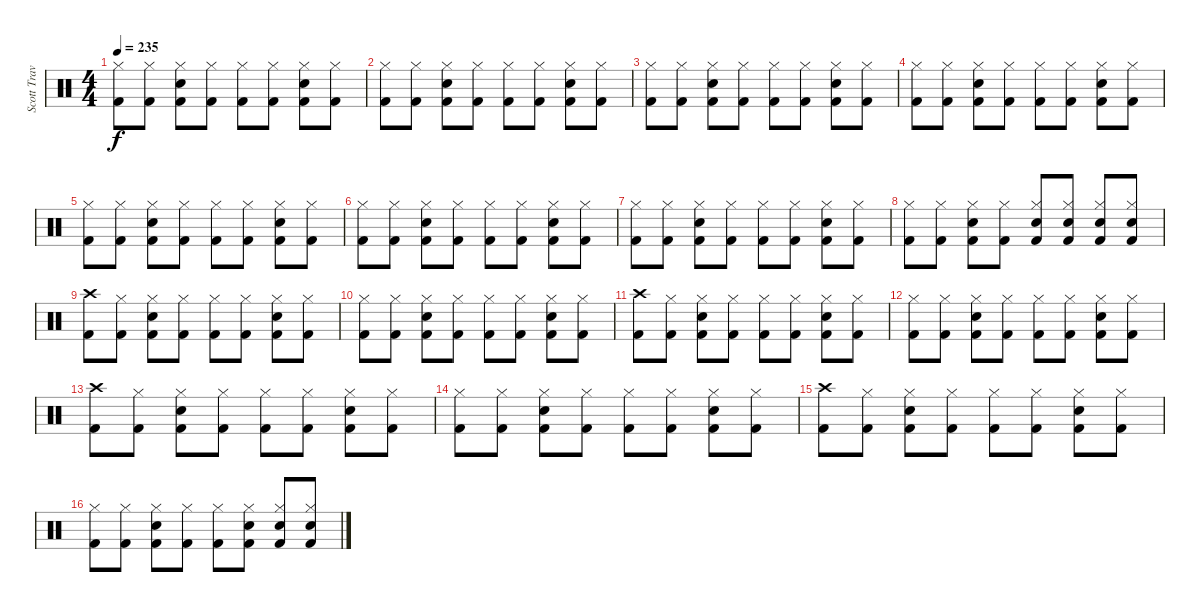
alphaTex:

\track ("Scott Travis" "Scott Trav") {instrument percussion}
\staff {score}
\articulation defaults
\ts (4 4)
\tempo 235
\clef neutral
\ks c
("Kick (hit) 2" "Hi-Hat (closed)").8{dy f} ("Kick (hit) 2" "Hi-Hat (closed)").8 ("Kick (hit) 2" "Snare (hit) 2" "Hi-Hat (closed)").8 ("Kick (hit) 2" "Hi-Hat (closed)").8 ("Kick (hit) 2" "Hi-Hat (closed)").8 ("Kick (hit) 2" "Hi-Hat (closed)").8 ("Kick (hit) 2" "Hi-Hat (closed)" "Snare (hit) 2").8 ("Kick (hit) 2" "Hi-Hat (closed)").8 |
("Kick (hit) 2" "Hi-Hat (closed)").8 ("Kick (hit) 2" "Hi-Hat (closed)").8 ("Kick (hit) 2" "Snare (hit) 2" "Hi-Hat (closed)").8 ("Kick (hit) 2" "Hi-Hat (closed)").8 ("Kick (hit) 2" "Hi-Hat (closed)").8 ("Kick (hit) 2" "Hi-Hat (closed)").8 ("Kick (hit) 2" "Hi-Hat (closed)" "Snare (hit) 2").8 ("Kick (hit) 2" "Hi-Hat (closed)").8 |
("Kick (hit) 2" "Hi-Hat (closed)").8 ("Kick (hit) 2" "Hi-Hat (closed)").8 ("Kick (hit) 2" "Snare (hit) 2" "Hi-Hat (closed)").8 ("Kick (hit) 2" "Hi-Hat (closed)").8 ("Kick (hit) 2" "Hi-Hat (closed)").8 ("Kick (hit) 2" "Hi-Hat (closed)").8 ("Kick (hit) 2" "Hi-Hat (closed)" "Snare (hit) 2").8 ("Kick (hit) 2" "Hi-Hat (closed)").8 |
("Kick (hit) 2" "Hi-Hat (closed)").8 ("Kick (hit) 2" "Hi-Hat (closed)").8 ("Kick (hit) 2" "Snare (hit) 2" "Hi-Hat (closed)").8 ("Kick (hit) 2" "Hi-Hat (closed)").8 ("Kick (hit) 2" "Hi-Hat (closed)").8 ("Kick (hit) 2" "Hi-Hat (closed)").8 ("Kick (hit) 2" "Hi-Hat (closed)" "Snare (hit) 2").8 ("Kick (hit) 2" "Hi-Hat (closed)").8 |
("Kick (hit) 2" "Hi-Hat (closed)").8 ("Kick (hit) 2" "Hi-Hat (closed)").8 ("Kick (hit) 2" "Snare (hit) 2" "Hi-Hat (closed)").8 ("Kick (hit) 2" "Hi-Hat (closed)").8 ("Kick (hit) 2" "Hi-Hat (closed)").8 ("Kick (hit) 2" "Hi-Hat (closed)").8 ("Kick (hit) 2" "Hi-Hat (closed)" "Snare (hit) 2").8 ("Kick (hit) 2" "Hi-Hat (closed)").8 |
("Kick (hit) 2" "Hi-Hat (closed)").8 ("Kick (hit) 2" "Hi-Hat (closed)").8 ("Kick (hit) 2" "Snare (hit) 2" "Hi-Hat (closed)").8 ("Kick (hit) 2" "Hi-Hat (closed)").8 ("Kick (hit) 2" "Hi-Hat (closed)").8 ("Kick (hit) 2" "Hi-Hat (closed)").8 ("Kick (hit) 2" "Hi-Hat (closed)" "Snare (hit) 2").8 ("Kick (hit) 2" "Hi-Hat (closed)").8 |
("Kick (hit) 2" "Hi-Hat (closed)").8 ("Kick (hit) 2" "Hi-Hat (closed)").8 ("Kick (hit) 2" "Snare (hit) 2" "Hi-Hat (closed)").8 ("Kick (hit) 2" "Hi-Hat (closed)").8 ("Kick (hit) 2" "Hi-Hat (closed)").8 ("Kick (hit) 2" "Hi-Hat (closed)").8 ("Kick (hit) 2" "Hi-Hat (closed)" "Snare (hit) 2").8 ("Kick (hit) 2" "Hi-Hat (closed)").8 |
("Kick (hit) 2" "Hi-Hat (closed)").8 ("Kick (hit) 2" "Hi-Hat (closed)").8 ("Kick (hit) 2" "Snare (hit) 2" "Hi-Hat (closed)").8 ("Kick (hit) 2" "Hi-Hat (closed)").8 ("Kick (hit) 2" "Hi-Hat (closed)" "Snare (hit) 2").8 ("Kick (hit) 2" "Hi-Hat (closed)" "Snare (hit) 2").8 ("Kick (hit) 2" "Hi-Hat (closed)" "Snare (hit) 2").8 ("Kick (hit) 2" "Hi-Hat (closed)" "Snare (hit) 2").8 |
("Kick (hit) 2" "Crash high (hit)").8 ("Kick (hit) 2" "Hi-Hat (closed)").8 ("Kick (hit) 2" "Snare (hit) 2" "Hi-Hat (closed)").8 ("Kick (hit) 2" "Hi-Hat (closed)").8 ("Kick (hit) 2" "Hi-Hat (closed)").8 ("Kick (hit) 2" "Hi-Hat (closed)").8 ("Kick (hit) 2" "Hi-Hat (closed)" "Snare (hit) 2").8 ("Kick (hit) 2" "Hi-Hat (closed)").8 |
("Kick (hit) 2" "Hi-Hat (closed)").8 ("Kick (hit) 2" "Hi-Hat (closed)").8 ("Kick (hit) 2" "Snare (hit) 2" "Hi-Hat (closed)").8 ("Kick (hit) 2" "Hi-Hat (closed)").8 ("Kick (hit) 2" "Hi-Hat (closed)").8 ("Kick (hit) 2" "Hi-Hat (closed)").8 ("Kick (hit) 2" "Hi-Hat (closed)" "Snare (hit) 2").8 ("Kick (hit) 2" "Hi-Hat (closed)").8 |
("Kick (hit) 2" "Crash high (hit)").8 ("Kick (hit) 2" "Hi-Hat (closed)").8 ("Kick (hit) 2" "Snare (hit) 2" "Hi-Hat (closed)").8 ("Kick (hit) 2" "Hi-Hat (closed)").8 ("Kick (hit) 2" "Hi-Hat (closed)").8 ("Kick (hit) 2" "Hi-Hat (closed)").8 ("Kick (hit) 2" "Hi-Hat (closed)" "Snare (hit) 2").8 ("Kick (hit) 2" "Hi-Hat (closed)").8 |
("Kick (hit) 2" "Hi-Hat (closed)").8 ("Kick (hit) 2" "Hi-Hat (closed)").8 ("Kick (hit) 2" "Snare (hit) 2" "Hi-Hat (closed)").8 ("Kick (hit) 2" "Hi-Hat (closed)").8 ("Kick (hit) 2" "Hi-Hat (closed)").8 ("Kick (hit) 2" "Hi-Hat (closed)").8 ("Kick (hit) 2" "Hi-Hat (closed)" "Snare (hit) 2").8 ("Kick (hit) 2" "Hi-Hat (closed)").8 |
("Kick (hit) 2" "Crash high (hit)").8 ("Kick (hit) 2" "Hi-Hat (closed)").8 ("Kick (hit) 2" "Snare (hit) 2" "Hi-Hat (closed)").8 ("Kick (hit) 2" "Hi-Hat (closed)").8 ("Kick (hit) 2" "Hi-Hat (closed)").8 ("Kick (hit) 2" "Hi-Hat (closed)").8 ("Kick (hit) 2" "Hi-Hat (closed)" "Snare (hit) 2").8 ("Kick (hit) 2" "Hi-Hat (closed)").8 |
("Kick (hit) 2" "Hi-Hat (closed)").8 ("Kick (hit) 2" "Hi-Hat (closed)").8 ("Kick (hit) 2" "Snare (hit) 2" "Hi-Hat (closed)").8 ("Kick (hit) 2" "Hi-Hat (closed)").8 ("Kick (hit) 2" "Hi-Hat (closed)").8 ("Kick (hit) 2" "Hi-Hat (closed)").8 ("Kick (hit) 2" "Hi-Hat (closed)" "Snare (hit) 2").8 ("Kick (hit) 2" "Hi-Hat (closed)").8 |
("Kick (hit) 2" "Crash high (hit)").8 ("Kick (hit) 2" "Hi-Hat (closed)").8 ("Kick (hit) 2" "Snare (hit) 2" "Hi-Hat (closed)").8 ("Kick (hit) 2" "Hi-Hat (closed)").8 ("Kick (hit) 2" "Hi-Hat (closed)").8 ("Kick (hit) 2" "Hi-Hat (closed)").8 ("Kick (hit) 2" "Hi-Hat (closed)" "Snare (hit) 2").8 ("Kick (hit) 2" "Hi-Hat (closed)").8 |
("Kick (hit) 2" "Hi-Hat (closed)").8 ("Kick (hit) 2" "Hi-Hat (closed)").8 ("Kick (hit) 2" "Snare (hit) 2" "Hi-Hat (closed)").8 ("Kick (hit) 2" "Hi-Hat (closed)").8 ("Kick (hit) 2" "Hi-Hat (closed)").8 ("Kick (hit) 2" "Hi-Hat (closed)" "Snare (hit) 2").8 ("Kick (hit) 2" "Hi-Hat (closed)" "Snare (hit) 2").8 ("Kick (hit) 2" "Hi-Hat (closed)" "Snare (hit) 2").8
